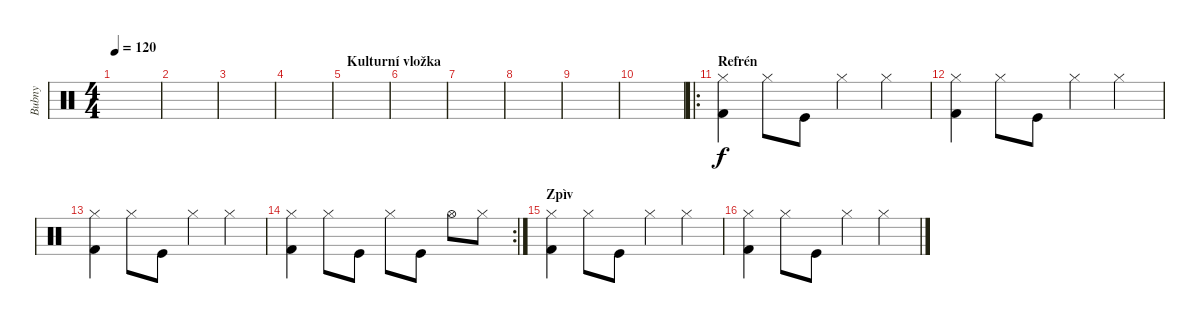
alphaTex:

\track ("Bubny" "Bubny") {instrument percussion}
\staff {score}
\articulation defaults
\ts (4 4)
\tempo 120
\clef neutral
\ks c
|
|
|
|
\section ("" "Kulturní vložka")
|
|
|
|
|
|
\ro
\section ("" "Refrén")
("Hi-Hat (closed)" "Kick (hit) 2").4 "Hi-Hat (closed)".8 "Kick (hit)".8 "Hi-Hat (closed)".4 "Hi-Hat (closed)".4 |
("Hi-Hat (closed)" "Kick (hit) 2").4 "Hi-Hat (closed)".8 "Kick (hit)".8 "Hi-Hat (closed)".4 "Hi-Hat (closed)".4 |
("Hi-Hat (closed)" "Kick (hit) 2").4 "Hi-Hat (closed)".8 "Kick (hit)".8 "Hi-Hat (closed)".4 "Hi-Hat (closed)".4 |
\rc 2
("Hi-Hat (closed)" "Kick (hit) 2").4 "Hi-Hat (closed)".8 "Kick (hit)".8 "Hi-Hat (closed)".8 "Kick (hit)".8 "Hi-Hat (open)".8 "Hi-Hat (closed)".8 |
\section ("" "Zpìv")
("Hi-Hat (closed)" "Kick (hit) 2").4 "Hi-Hat (closed)".8 "Kick (hit)".8 "Hi-Hat (closed)".4 "Hi-Hat (closed)".4 |
("Hi-Hat (closed)" "Kick (hit) 2").4 "Hi-Hat (closed)".8 "Kick (hit)".8 "Hi-Hat (closed)".4 "Hi-Hat (closed)".4
